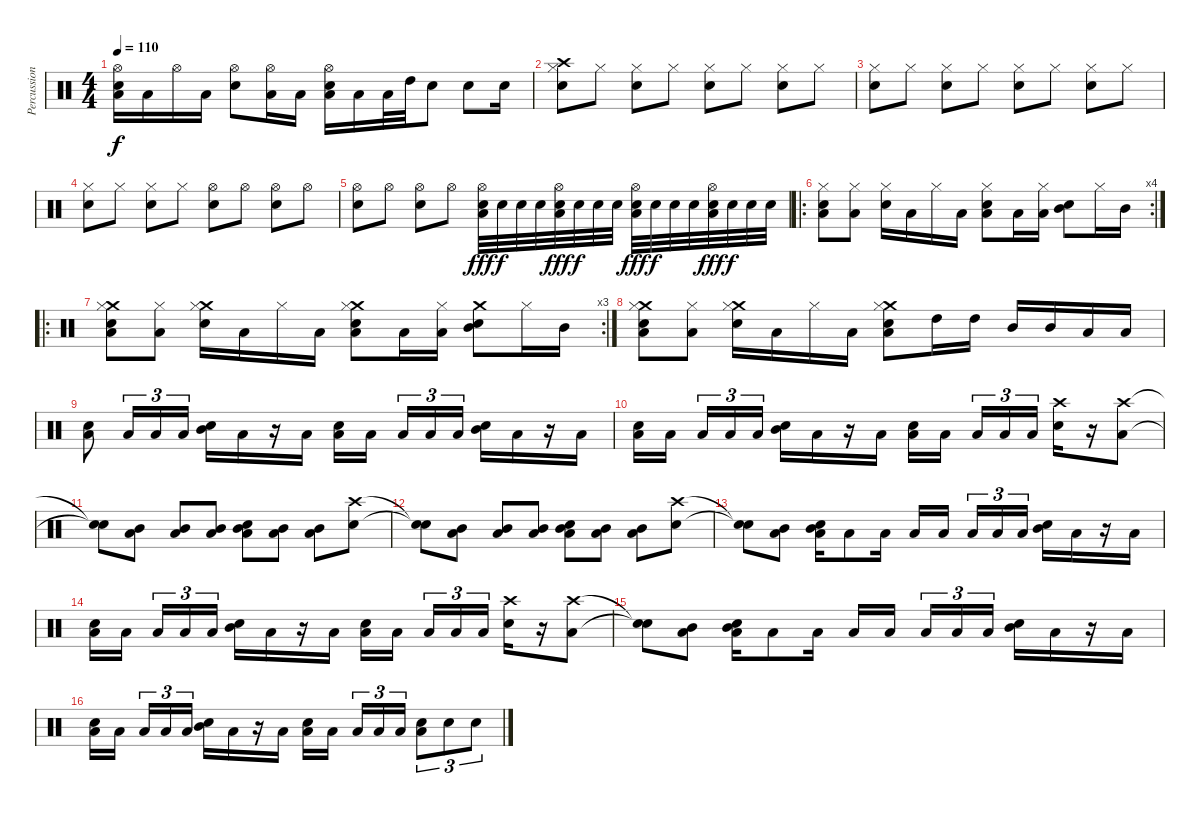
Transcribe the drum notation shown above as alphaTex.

\track ("Percussions" "Percussion") {instrument percussion}
\staff {score}
\articulation defaults
\ts (4 4)
\tempo 110
\clef neutral
\ks c
("Hi-Hat (open)" "Snare (hit) 2" "Low Floor Tom (hit)").16{dy f} "Low Floor Tom (hit)".16 "Hi-Hat (open)".16 "Low Floor Tom (hit)".16 ("Hi-Hat (open)" "Snare (hit) 2").8 ("Hi-Hat (open)" "Low Floor Tom (hit)").16 "Low Floor Tom (hit)".16 ("Hi-Hat (open)" "Snare (hit) 2" "Low Floor Tom (hit)").16 "Low Floor Tom (hit)".16 "Low Floor Tom (hit)".32 "High Tom (hit)".32 "Snare (hit) 2".8 "Snare (hit) 2".8 "Snare (hit) 2".16 |
("Crash high (hit)" "Snare (hit) 2" "Hi-Hat (closed)").8 "Hi-Hat (closed)".8 ("Snare (hit) 2" "Hi-Hat (closed)").8 "Hi-Hat (closed)".8 ("Snare (hit) 2" "Hi-Hat (closed)").8 "Hi-Hat (closed)".8 ("Snare (hit) 2" "Hi-Hat (closed)").8 "Hi-Hat (closed)".8 |
("Snare (hit) 2" "Hi-Hat (closed)").8 "Hi-Hat (closed)".8 ("Snare (hit) 2" "Hi-Hat (closed)").8 "Hi-Hat (closed)".8 ("Snare (hit) 2" "Hi-Hat (closed)").8 "Hi-Hat (closed)".8 ("Snare (hit) 2" "Hi-Hat (closed)").8 "Hi-Hat (closed)".8 |
("Snare (hit) 2" "Hi-Hat (closed)").8 "Hi-Hat (closed)".8 ("Snare (hit) 2" "Hi-Hat (closed)").8 "Hi-Hat (closed)".8 ("Snare (hit) 2" "Hi-Hat (open)").8 "Hi-Hat (open)".8 ("Snare (hit) 2" "Hi-Hat (open)").8 "Hi-Hat (open)".8 |
("Snare (hit) 2" "Hi-Hat (open)").8 "Hi-Hat (open)".8 ("Snare (hit) 2" "Hi-Hat (open)").8 "Hi-Hat (open)".8 ("Low Floor Tom (hit)" "Snare (hit) 2" "Hi-Hat (open)").32{dy fff} "Snare (hit) 2".32{dy f} "Snare (hit) 2".32 "Snare (hit) 2".32 ("Low Floor Tom (hit)" "Snare (hit) 2" "Hi-Hat (open)").32{dy fff} "Snare (hit) 2".32{dy f} "Snare (hit) 2".32 "Snare (hit) 2".32 ("Low Floor Tom (hit)" "Snare (hit) 2" "Hi-Hat (open)").32{dy fff} "Snare (hit) 2".32{dy f} "Snare (hit) 2".32 "Snare (hit) 2".32 ("Low Floor Tom (hit)" "Snare (hit) 2" "Hi-Hat (open)").32{dy fff} "Snare (hit) 2".32{dy f} "Snare (hit) 2".32 "Snare (hit) 2".32 |
\ro
\rc 4
("Snare (hit) 2" "Hi-Hat (closed)" "Low Floor Tom (hit)").8 ("Hi-Hat (closed)" "Low Floor Tom (hit)").8 ("Snare (hit) 2" "Hi-Hat (closed)").16 "Low Floor Tom (hit)".16 "Hi-Hat (closed)".16 "Low Floor Tom (hit)".16 ("Snare (hit) 2" "Hi-Hat (closed)" "Low Floor Tom (hit)").8 "Low Floor Tom (hit)".16 ("Hi-Hat (closed)" "Low Floor Tom (hit)").16 ("Snare (hit) 2" "Mid Tom (hit)").8 "Hi-Hat (closed)".16 "Mid Tom (hit)".16 |
\ro
\rc 3
("Crash medium (hit)" "Snare (hit) 2" "Hi-Hat (closed)" "Low Floor Tom (hit)").8 ("Hi-Hat (closed)" "Low Floor Tom (hit)").8 ("Crash medium (hit)" "Snare (hit) 2" "Hi-Hat (closed)").16 "Low Floor Tom (hit)".16 "Hi-Hat (closed)".16 "Low Floor Tom (hit)".16 ("Crash medium (hit)" "Snare (hit) 2" "Hi-Hat (closed)" "Low Floor Tom (hit)").8 "Low Floor Tom (hit)".16 ("Hi-Hat (closed)" "Low Floor Tom (hit)").16 ("Crash medium (hit)" "Snare (hit) 2" "Mid Tom (hit)").8 "Hi-Hat (closed)".16 "Mid Tom (hit)".16 |
("Crash medium (hit)" "Snare (hit) 2" "Hi-Hat (closed)" "Low Floor Tom (hit)").8 ("Hi-Hat (closed)" "Low Floor Tom (hit)").8 ("Crash medium (hit)" "Snare (hit) 2" "Hi-Hat (closed)").16 "Low Floor Tom (hit)".16 "Hi-Hat (closed)".16 "Low Floor Tom (hit)".16 ("Crash medium (hit)" "Snare (hit) 2" "Hi-Hat (closed)" "Low Floor Tom (hit)").8 "High Tom (hit)".16 "High Tom (hit)".16 "Mid Tom (hit)".16 "Mid Tom (hit)".16 "Low Tom (hit)".16 "Low Tom (hit)".16 |
("Snare (hit) 2" "Low Floor Tom (hit)").8 "Low Floor Tom (hit)".16{tu (3 2)} "Low Floor Tom (hit)".16{tu (3 2)} "Low Floor Tom (hit)".16{tu (3 2)} ("Snare (hit) 2" "Mid Tom (hit)").16 "Low Floor Tom (hit)".16 r.16 "Low Floor Tom (hit)".16 ("Snare (hit) 2" "Low Floor Tom (hit)").16 "Low Floor Tom (hit)".16 "Low Floor Tom (hit)".16{tu (3 2)} "Low Floor Tom (hit)".16{tu (3 2)} "Low Floor Tom (hit)".16{tu (3 2)} ("Snare (hit) 2" "Mid Tom (hit)").16 "Low Floor Tom (hit)".16 r.16 "Low Floor Tom (hit)".16 |
("Snare (hit) 2" "Low Floor Tom (hit)").16 "Low Floor Tom (hit)".16 "Low Floor Tom (hit)".16{tu (3 2)} "Low Floor Tom (hit)".16{tu (3 2)} "Low Floor Tom (hit)".16{tu (3 2)} ("Snare (hit) 2" "Mid Tom (hit)").16 "Low Floor Tom (hit)".16 r.16 "Low Floor Tom (hit)".16 ("Snare (hit) 2" "Low Floor Tom (hit)").16 "Low Floor Tom (hit)".16 "Low Floor Tom (hit)".16{tu (3 2)} "Low Floor Tom (hit)".16{tu (3 2)} "Low Floor Tom (hit)".16{tu (3 2)} ("Crash high (hit)" "Snare (hit) 2").16 r.16 ("Crash high (hit)" "Low Floor Tom (hit)").8 |
("Snare (hit)"{t} "Snare (hit)"{t}).8 ("Low Floor Tom (hit)" "Mid Tom (hit)").8 ("Low Floor Tom (hit)" "Mid Tom (hit)").8 ("Low Floor Tom (hit)" "Mid Tom (hit)").8 ("Snare (hit) 2" "Low Floor Tom (hit)" "Mid Tom (hit)").8 ("Low Floor Tom (hit)" "Mid Tom (hit)").8 ("Low Floor Tom (hit)" "Mid Tom (hit)").8 ("Crash high (hit)" "Snare (hit) 2").8 |
("Snare (hit)"{t} "Snare (hit)"{t}).8 ("Low Floor Tom (hit)" "Mid Tom (hit)").8 ("Low Floor Tom (hit)" "Mid Tom (hit)").8 ("Low Floor Tom (hit)" "Mid Tom (hit)").8 ("Snare (hit) 2" "Low Floor Tom (hit)" "Mid Tom (hit)").8 ("Low Floor Tom (hit)" "Mid Tom (hit)").8 ("Low Floor Tom (hit)" "Mid Tom (hit)").8 ("Crash high (hit)" "Snare (hit) 2").8 |
("Snare (hit)"{t} "Snare (hit)"{t}).8 ("Low Floor Tom (hit)" "Mid Tom (hit)").8 ("Low Floor Tom (hit)" "Mid Tom (hit)" "Snare (hit) 2").16 "Low Floor Tom (hit)".8 "Low Floor Tom (hit)".16 "Low Floor Tom (hit)".16 "Low Floor Tom (hit)".16 "Low Floor Tom (hit)".16{tu (3 2)} "Low Floor Tom (hit)".16{tu (3 2)} "Low Floor Tom (hit)".16{tu (3 2)} ("Snare (hit) 2" "Mid Tom (hit)").16 "Low Floor Tom (hit)".16 r.16 "Low Floor Tom (hit)".16 |
("Snare (hit) 2" "Low Floor Tom (hit)").16 "Low Floor Tom (hit)".16 "Low Floor Tom (hit)".16{tu (3 2)} "Low Floor Tom (hit)".16{tu (3 2)} "Low Floor Tom (hit)".16{tu (3 2)} ("Snare (hit) 2" "Mid Tom (hit)").16 "Low Floor Tom (hit)".16 r.16 "Low Floor Tom (hit)".16 ("Snare (hit) 2" "Low Floor Tom (hit)").16 "Low Floor Tom (hit)".16 "Low Floor Tom (hit)".16{tu (3 2)} "Low Floor Tom (hit)".16{tu (3 2)} "Low Floor Tom (hit)".16{tu (3 2)} ("Crash high (hit)" "Snare (hit) 2").16 r.16 ("Crash high (hit)" "Low Floor Tom (hit)").8 |
("Snare (hit)"{t} "Snare (hit)"{t}).8 ("Low Floor Tom (hit)" "Mid Tom (hit)").8 ("Low Floor Tom (hit)" "Mid Tom (hit)" "Snare (hit) 2").16 "Low Floor Tom (hit)".8 "Low Floor Tom (hit)".16 "Low Floor Tom (hit)".16 "Low Floor Tom (hit)".16 "Low Floor Tom (hit)".16{tu (3 2)} "Low Floor Tom (hit)".16{tu (3 2)} "Low Floor Tom (hit)".16{tu (3 2)} ("Snare (hit) 2" "Mid Tom (hit)").16 "Low Floor Tom (hit)".16 r.16 "Low Floor Tom (hit)".16 |
("Snare (hit) 2" "Low Floor Tom (hit)").16 "Low Floor Tom (hit)".16 "Low Floor Tom (hit)".16{tu (3 2)} "Low Floor Tom (hit)".16{tu (3 2)} "Low Floor Tom (hit)".16{tu (3 2)} ("Snare (hit) 2" "Mid Tom (hit)").16 "Low Floor Tom (hit)".16 r.16 "Low Floor Tom (hit)".16 ("Snare (hit) 2" "Low Floor Tom (hit)").16 "Low Floor Tom (hit)".16 "Low Floor Tom (hit)".16{tu (3 2)} "Low Floor Tom (hit)".16{tu (3 2)} "Low Floor Tom (hit)".16{tu (3 2)} ("Snare (hit) 2" "Low Floor Tom (hit)").8{tu (3 2)} "Snare (hit) 2".8{tu (3 2)} "Snare (hit) 2".8{tu (3 2)}
